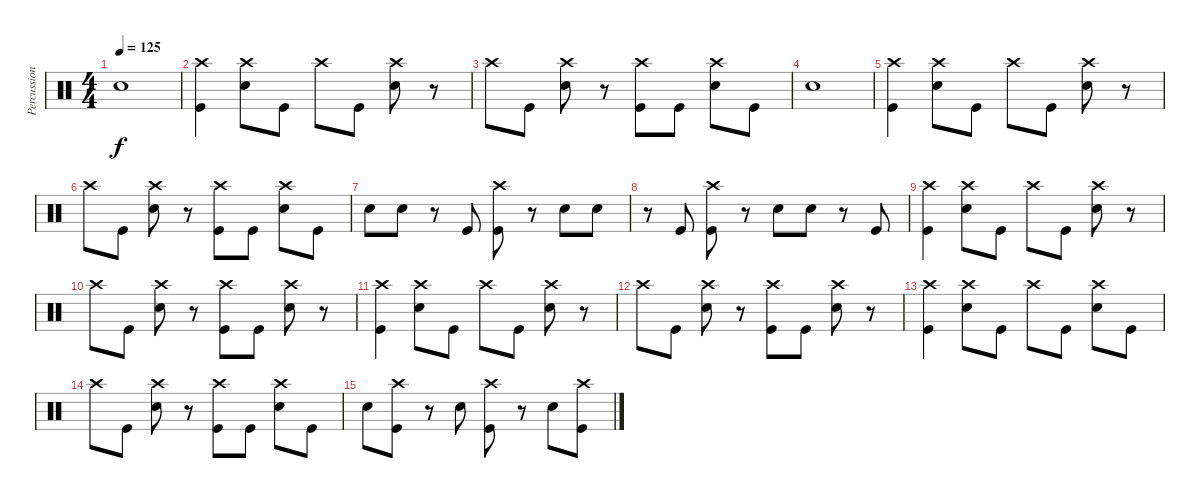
\track ("Percussion" "Percussion") {instrument percussion}
\staff {score}
\articulation defaults
\ts (4 4)
\tempo 125
\clef neutral
\ks c "Snare (hit) 2".1{dy f}
|
("Crash high (hit)" "Kick (hit)").4 ("Crash high (hit)" "Snare (hit) 2").8 "Kick (hit)".8 "Crash high (hit)".8 "Kick (hit)".8 ("Crash high (hit)" "Snare (hit) 2").8 r.8 |
"Crash high (hit)".8 "Kick (hit)".8 ("Crash high (hit)" "Snare (hit) 2").8 r.8 ("Crash high (hit)" "Kick (hit)").8 "Kick (hit)".8 ("Crash high (hit)" "Snare (hit) 2").8 "Kick (hit)".8 |
"Snare (hit) 2".1 |
("Crash high (hit)" "Kick (hit)").4 ("Crash high (hit)" "Snare (hit) 2").8 "Kick (hit)".8 "Crash high (hit)".8 "Kick (hit)".8 ("Crash high (hit)" "Snare (hit) 2").8 r.8 |
"Crash high (hit)".8 "Kick (hit)".8 ("Crash high (hit)" "Snare (hit) 2").8 r.8 ("Crash high (hit)" "Kick (hit)").8 "Kick (hit)".8 ("Crash high (hit)" "Snare (hit) 2").8 "Kick (hit)".8 |
"Snare (hit) 2".8 "Snare (hit) 2".8 r.8 "Kick (hit)".8 ("Crash high (hit)" "Kick (hit)").8 r.8 "Snare (hit) 2".8 "Snare (hit) 2".8 |
r.8 "Kick (hit)".8 ("Crash high (hit)" "Kick (hit)").8 r.8 "Snare (hit) 2".8 "Snare (hit) 2".8 r.8 "Kick (hit)".8 |
("Crash high (hit)" "Kick (hit)").4 ("Crash high (hit)" "Snare (hit) 2").8 "Kick (hit)".8 "Crash high (hit)".8 "Kick (hit)".8 ("Crash high (hit)" "Snare (hit) 2").8 r.8 |
"Crash high (hit)".8 "Kick (hit)".8 ("Crash high (hit)" "Snare (hit) 2").8 r.8 ("Crash high (hit)" "Kick (hit)").8 "Kick (hit)".8 ("Crash high (hit)" "Snare (hit) 2").8 r.8 |
("Crash high (hit)" "Kick (hit)").4 ("Crash high (hit)" "Snare (hit) 2").8 "Kick (hit)".8 "Crash high (hit)".8 "Kick (hit)".8 ("Crash high (hit)" "Snare (hit) 2").8 r.8 |
"Crash high (hit)".8 "Kick (hit)".8 ("Crash high (hit)" "Snare (hit) 2").8 r.8 ("Crash high (hit)" "Kick (hit)").8 "Kick (hit)".8 ("Crash high (hit)" "Snare (hit) 2").8 r.8 |
("Crash high (hit)" "Kick (hit)").4 ("Crash high (hit)" "Snare (hit) 2").8 "Kick (hit)".8 "Crash high (hit)".8 "Kick (hit)".8 ("Crash high (hit)" "Snare (hit) 2").8 "Kick (hit)".8 |
"Crash high (hit)".8 "Kick (hit)".8 ("Crash high (hit)" "Snare (hit) 2").8 r.8 ("Crash high (hit)" "Kick (hit)").8 "Kick (hit)".8 ("Crash high (hit)" "Snare (hit) 2").8 "Kick (hit)".8 |
"Snare (hit) 2".8 ("Crash high (hit)" "Kick (hit)").8 r.8 "Snare (hit) 2".8 ("Crash high (hit)" "Kick (hit)").8 r.8 "Snare (hit) 2".8 ("Crash high (hit)" "Kick (hit)").8
